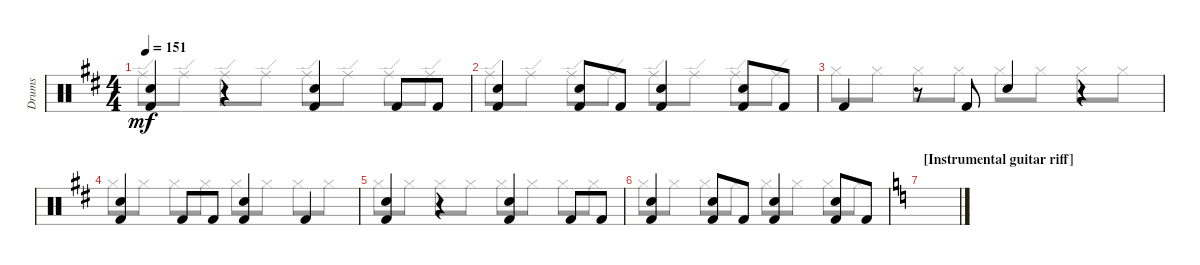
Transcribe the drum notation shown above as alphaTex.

\bracketExtendMode groupsimilarinstruments
\track ("Drumkit" "Drums") {instrument percussion}
\staff {score}
\articulation defaults
\voice
\ts (4 4)
\tempo 151
\clef neutral
\ks d
("Kick (hit) 2"{acc forcenatural} "Snare (hit) 2"{acc forcenatural}).4{dy mf} r.4 ("Kick (hit) 2"{acc forcenatural} "Snare (hit) 2"{acc forcenatural}).4 "Kick (hit) 2"{acc forcenatural}.8 "Kick (hit) 2"{acc forcenatural}.8 |
("Kick (hit) 2"{acc forcenatural} "Snare (hit) 2"{acc forcenatural}).4 ("Kick (hit) 2"{acc forcenatural} "Snare (hit) 2"{acc forcenatural}).8 "Kick (hit) 2"{acc forcenatural}.8 ("Kick (hit) 2"{acc forcenatural} "Snare (hit) 2"{acc forcenatural}).4 ("Kick (hit) 2"{acc forcenatural} "Snare (hit) 2"{acc forcenatural}).8 "Kick (hit) 2"{acc forcenatural}.8 |
"Kick (hit) 2"{acc forcenatural}.4 r.8 "Kick (hit) 2"{acc forcenatural}.8 "Snare (hit) 2"{acc forcenatural}.4 r.4 |
("Kick (hit) 2"{acc forcenatural} "Snare (hit) 2"{acc forcenatural}).4 "Kick (hit) 2"{acc forcenatural}.8 "Kick (hit) 2"{acc forcenatural}.8 ("Kick (hit) 2"{acc forcenatural} "Snare (hit) 2"{acc forcenatural}).4 "Kick (hit) 2"{acc forcenatural}.4 |
("Kick (hit) 2"{acc forcenatural} "Snare (hit) 2"{acc forcenatural}).4 r.4 ("Kick (hit) 2"{acc forcenatural} "Snare (hit) 2"{acc forcenatural}).4 "Kick (hit) 2"{acc forcenatural}.8 "Kick (hit) 2"{acc forcenatural}.8 |
("Kick (hit) 2"{acc forcenatural} "Snare (hit) 2"{acc forcenatural}).4 ("Kick (hit) 2"{acc forcenatural} "Snare (hit) 2"{acc forcenatural}).8 "Kick (hit) 2"{acc forcenatural}.8 ("Kick (hit) 2"{acc forcenatural} "Snare (hit) 2"{acc forcenatural}).4 ("Kick (hit) 2"{acc forcenatural} "Snare (hit) 2"{acc forcenatural}).8 "Kick (hit) 2"{acc forcenatural}.8 |
\section ("" "[Instrumental guitar riff]")
\ks aminor
|
|
|
|
|
|
|
|
|
\voice
\clef neutral
\ottava regular
\simile none
\ks d "Ride (edge)"{acc forcenatural}.8{dy mf} "Ride (edge)"{acc forcenatural}.8 "Ride (edge)"{acc forcenatural}.8 "Ride (edge)"{acc forcenatural}.8 "Ride (edge)"{acc forcenatural}.8 "Ride (edge)"{acc forcenatural}.8 "Ride (edge)"{acc forcenatural}.8 "Ride (edge)"{acc forcenatural}.8
|
"Ride (edge)"{acc forcenatural}.8 "Ride (edge)"{acc forcenatural}.8 "Ride (edge)"{acc forcenatural}.8 "Ride (edge)"{acc forcenatural}.8 "Ride (edge)"{acc forcenatural}.8 "Ride (edge)"{acc forcenatural}.8 "Ride (edge)"{acc forcenatural}.8 "Ride (edge)"{acc forcenatural}.8 |
"Hi-Hat (closed)"{acc forcenatural}.8 "Hi-Hat (closed)"{acc forcenatural}.8 "Hi-Hat (closed)"{acc forcenatural}.8 "Hi-Hat (closed)"{acc forcenatural}.8 "Hi-Hat (closed)"{acc forcenatural}.8 "Hi-Hat (closed)"{acc forcenatural}.8 "Hi-Hat (closed)"{acc forcenatural}.8 "Hi-Hat (closed)"{acc forcenatural}.8 |
"Hi-Hat (closed)"{acc forcenatural}.8 "Hi-Hat (closed)"{acc forcenatural}.8 "Hi-Hat (closed)"{acc forcenatural}.8 "Hi-Hat (closed)"{acc forcenatural}.8 "Hi-Hat (closed)"{acc forcenatural}.8 "Hi-Hat (closed)"{acc forcenatural}.8 "Hi-Hat (closed)"{acc forcenatural}.8 "Hi-Hat (closed)"{acc forcenatural}.8 |
"Hi-Hat (closed)"{acc forcenatural}.8 "Hi-Hat (closed)"{acc forcenatural}.8 "Hi-Hat (closed)"{acc forcenatural}.8 "Hi-Hat (closed)"{acc forcenatural}.8 "Hi-Hat (closed)"{acc forcenatural}.8 "Hi-Hat (closed)"{acc forcenatural}.8 "Hi-Hat (closed)"{acc forcenatural}.8 "Hi-Hat (closed)"{acc forcenatural}.8 |
"Hi-Hat (closed)"{acc forcenatural}.8 "Hi-Hat (closed)"{acc forcenatural}.8 "Hi-Hat (closed)"{acc forcenatural}.8 "Hi-Hat (closed)"{acc forcenatural}.8 "Hi-Hat (closed)"{acc forcenatural}.8 "Hi-Hat (closed)"{acc forcenatural}.8 "Hi-Hat (closed)"{acc forcenatural}.8 "Hi-Hat (closed)"{acc forcenatural}.8 |
\ks aminor
|
|
|
|
|
|
|
|
|
